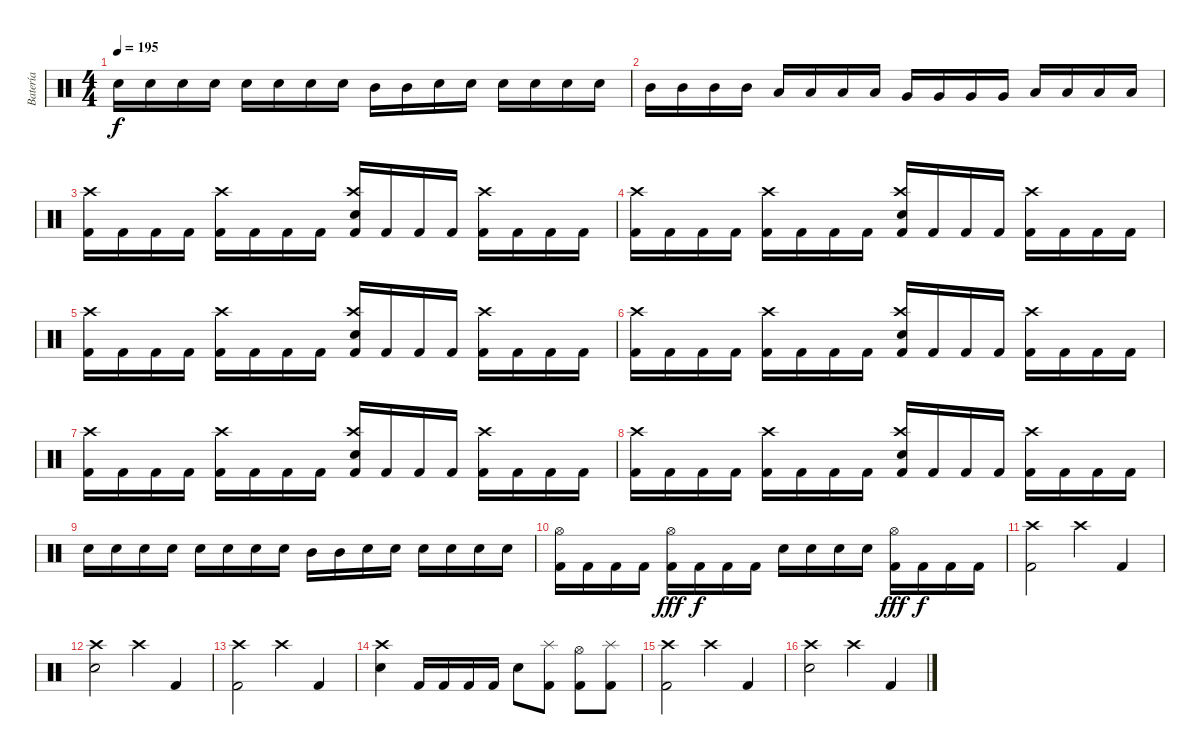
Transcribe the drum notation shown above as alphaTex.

\track ("Batería" "Batería") {instrument percussion}
\staff {score}
\articulation defaults
\ts (4 4)
\tempo 195
\clef neutral
\ks c "Snare (hit) 2".16{dy f} "Snare (hit) 2".16 "Snare (hit) 2".16 "Snare (hit) 2".16 "Snare (hit) 2".16 "Snare (hit) 2".16 "Snare (hit) 2".16 "Snare (hit) 2".16 "Mid Tom (hit)".16 "Mid Tom (hit)".16 "Snare (hit) 2".16 "Snare (hit) 2".16 "Snare (hit) 2".16 "Snare (hit) 2".16 "Snare (hit) 2".16 "Snare (hit) 2".16
|
"Mid Tom (hit)".16 "Mid Tom (hit)".16 "Mid Tom (hit)".16 "Mid Tom (hit)".16 "Low Tom (hit)".16 "Low Tom (hit)".16 "Low Tom (hit)".16 "Low Tom (hit)".16 "Very Low Tom (hit)".16 "Very Low Tom (hit)".16 "Very Low Tom (hit)".16 "Very Low Tom (hit)".16 "Low Floor Tom (hit)".16 "Low Floor Tom (hit)".16 "Low Floor Tom (hit)".16 "Low Floor Tom (hit)".16 |
("Crash high (hit)" "Kick (hit) 2").16 "Kick (hit) 2".16 "Kick (hit) 2".16 "Kick (hit) 2".16 ("Crash high (hit)" "Kick (hit) 2").16 "Kick (hit) 2".16 "Kick (hit) 2".16 "Kick (hit) 2".16 ("Crash high (hit)" "Snare (hit) 2" "Kick (hit) 2").16 "Kick (hit) 2".16 "Kick (hit) 2".16 "Kick (hit) 2".16 ("Crash high (hit)" "Kick (hit) 2").16 "Kick (hit) 2".16 "Kick (hit) 2".16 "Kick (hit) 2".16 |
("Crash high (hit)" "Kick (hit) 2").16 "Kick (hit) 2".16 "Kick (hit) 2".16 "Kick (hit) 2".16 ("Crash high (hit)" "Kick (hit) 2").16 "Kick (hit) 2".16 "Kick (hit) 2".16 "Kick (hit) 2".16 ("Crash high (hit)" "Snare (hit) 2" "Kick (hit) 2").16 "Kick (hit) 2".16 "Kick (hit) 2".16 "Kick (hit) 2".16 ("Crash high (hit)" "Kick (hit) 2").16 "Kick (hit) 2".16 "Kick (hit) 2".16 "Kick (hit) 2".16 |
("Crash high (hit)" "Kick (hit) 2").16 "Kick (hit) 2".16 "Kick (hit) 2".16 "Kick (hit) 2".16 ("Crash high (hit)" "Kick (hit) 2").16 "Kick (hit) 2".16 "Kick (hit) 2".16 "Kick (hit) 2".16 ("Crash high (hit)" "Snare (hit) 2" "Kick (hit) 2").16 "Kick (hit) 2".16 "Kick (hit) 2".16 "Kick (hit) 2".16 ("Crash high (hit)" "Kick (hit) 2").16 "Kick (hit) 2".16 "Kick (hit) 2".16 "Kick (hit) 2".16 |
("Crash high (hit)" "Kick (hit) 2").16 "Kick (hit) 2".16 "Kick (hit) 2".16 "Kick (hit) 2".16 ("Crash high (hit)" "Kick (hit) 2").16 "Kick (hit) 2".16 "Kick (hit) 2".16 "Kick (hit) 2".16 ("Crash high (hit)" "Snare (hit) 2" "Kick (hit) 2").16 "Kick (hit) 2".16 "Kick (hit) 2".16 "Kick (hit) 2".16 ("Crash high (hit)" "Kick (hit) 2").16 "Kick (hit) 2".16 "Kick (hit) 2".16 "Kick (hit) 2".16 |
("Crash high (hit)" "Kick (hit) 2").16 "Kick (hit) 2".16 "Kick (hit) 2".16 "Kick (hit) 2".16 ("Crash high (hit)" "Kick (hit) 2").16 "Kick (hit) 2".16 "Kick (hit) 2".16 "Kick (hit) 2".16 ("Crash high (hit)" "Snare (hit) 2" "Kick (hit) 2").16 "Kick (hit) 2".16 "Kick (hit) 2".16 "Kick (hit) 2".16 ("Crash high (hit)" "Kick (hit) 2").16 "Kick (hit) 2".16 "Kick (hit) 2".16 "Kick (hit) 2".16 |
("Crash high (hit)" "Kick (hit) 2").16 "Kick (hit) 2".16 "Kick (hit) 2".16 "Kick (hit) 2".16 ("Crash high (hit)" "Kick (hit) 2").16 "Kick (hit) 2".16 "Kick (hit) 2".16 "Kick (hit) 2".16 ("Crash high (hit)" "Snare (hit) 2" "Kick (hit) 2").16 "Kick (hit) 2".16 "Kick (hit) 2".16 "Kick (hit) 2".16 ("Crash high (hit)" "Kick (hit) 2").16 "Kick (hit) 2".16 "Kick (hit) 2".16 "Kick (hit) 2".16 |
"Snare (hit) 2".16 "Snare (hit) 2".16 "Snare (hit) 2".16 "Snare (hit) 2".16 "Snare (hit) 2".16 "Snare (hit) 2".16 "Snare (hit) 2".16 "Snare (hit) 2".16 "Mid Tom (hit)".16 "Mid Tom (hit)".16 "Snare (hit) 2".16 "Snare (hit) 2".16 "Snare (hit) 2".16 "Snare (hit) 2".16 "Snare (hit) 2".16 "Snare (hit) 2".16 |
("Hi-Hat (open)" "Kick (hit) 2").16 "Kick (hit) 2".16 "Kick (hit) 2".16 "Kick (hit) 2".16 ("Hi-Hat (open)" "Kick (hit) 2").16{dy fff} "Kick (hit) 2".16{dy f} "Kick (hit) 2".16 "Kick (hit) 2".16 "Snare (hit) 2".16 "Snare (hit) 2".16 "Snare (hit) 2".16 "Snare (hit) 2".16 ("Hi-Hat (open)" "Kick (hit) 2").16{dy fff} "Kick (hit) 2".16{dy f} "Kick (hit) 2".16 "Kick (hit) 2".16 |
("Crash high (hit)" "Kick (hit) 2").2 "Crash high (hit)".4 "Kick (hit) 2".4 |
("Crash high (hit)" "Snare (hit) 2").2 "Crash high (hit)".4 "Kick (hit) 2".4 |
("Crash high (hit)" "Kick (hit) 2").2 "Crash high (hit)".4 "Kick (hit) 2".4 |
("Crash high (hit)" "Snare (hit) 2").4 "Kick (hit) 2".16 "Kick (hit) 2".16 "Kick (hit) 2".16 "Kick (hit) 2".16 "Snare (hit) 2".8 ("Splash (hit)" "Kick (hit) 2").8 ("Hi-Hat (open)" "Kick (hit) 2").8 ("Splash (hit)" "Kick (hit) 2").8 |
("Crash high (hit)" "Kick (hit) 2").2 "Crash high (hit)".4 "Kick (hit) 2".4 |
("Crash high (hit)" "Snare (hit) 2").2 "Crash high (hit)".4 "Kick (hit) 2".4
